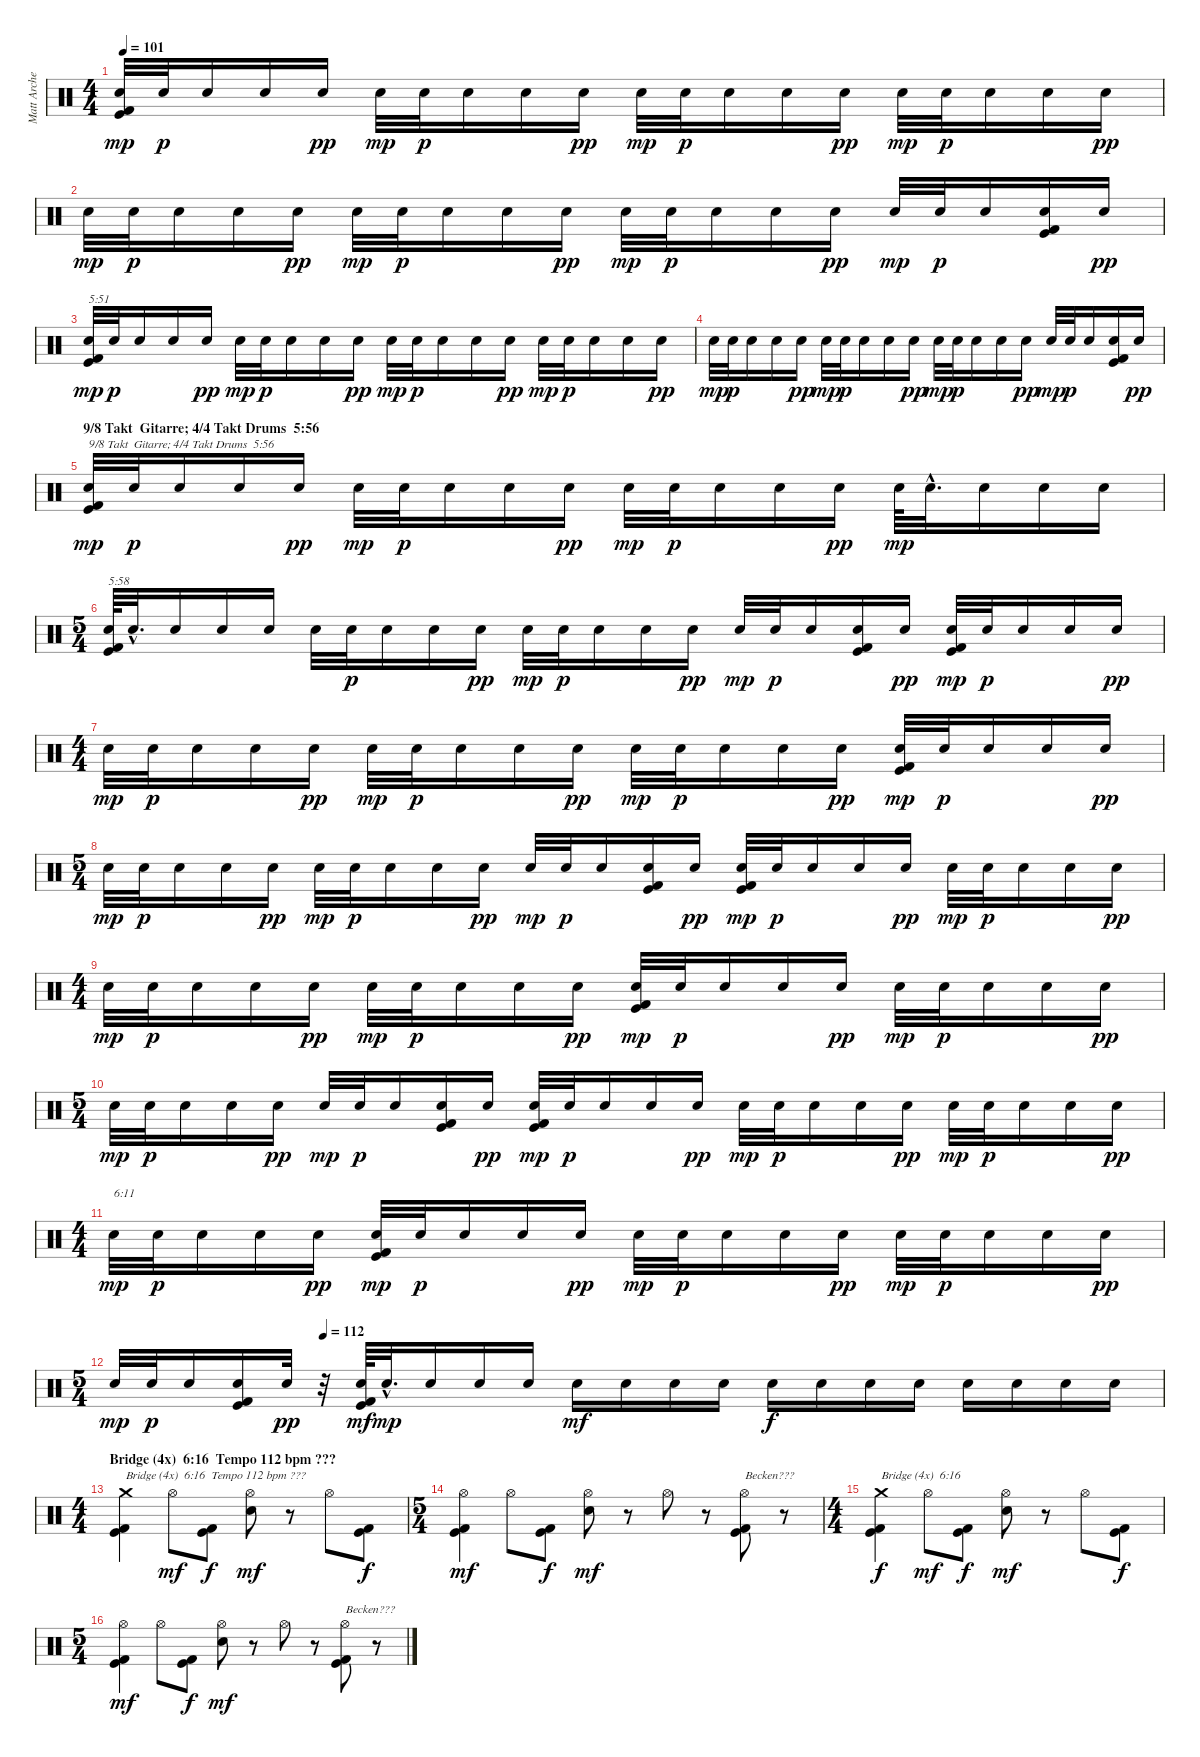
\track ("Matt Archer" "Matt Arche") {instrument percussion}
\staff {score}
\articulation defaults
\ts (4 4)
\tempo 101
\clef neutral
\ks c
("Kick (hit)" "Kick (hit) 2" "Electric Snare (hit)").32{dy mp} "Electric Snare (hit)".32{dy p} "Electric Snare (hit)".16 "Electric Snare (hit)".16 "Electric Snare (hit)".16{dy pp} "Electric Snare (hit)".32{dy mp} "Electric Snare (hit)".32{dy p} "Electric Snare (hit)".16 "Electric Snare (hit)".16 "Electric Snare (hit)".16{dy pp} "Electric Snare (hit)".32{dy mp} "Electric Snare (hit)".32{dy p} "Electric Snare (hit)".16 "Electric Snare (hit)".16 "Electric Snare (hit)".16{dy pp} "Electric Snare (hit)".32{dy mp} "Electric Snare (hit)".32{dy p} "Electric Snare (hit)".16 "Electric Snare (hit)".16 "Electric Snare (hit)".16{dy pp} |
"Electric Snare (hit)".32{dy mp} "Electric Snare (hit)".32{dy p} "Electric Snare (hit)".16 "Electric Snare (hit)".16 "Electric Snare (hit)".16{dy pp} "Electric Snare (hit)".32{dy mp} "Electric Snare (hit)".32{dy p} "Electric Snare (hit)".16 "Electric Snare (hit)".16 "Electric Snare (hit)".16{dy pp} "Electric Snare (hit)".32{dy mp} "Electric Snare (hit)".32{dy p} "Electric Snare (hit)".16 "Electric Snare (hit)".16 "Electric Snare (hit)".16{dy pp} "Electric Snare (hit)".32{dy mp} "Electric Snare (hit)".32{dy p} "Electric Snare (hit)".16 ("Kick (hit)" "Kick (hit) 2" "Electric Snare (hit)").16 "Electric Snare (hit)".16{dy pp} |
("Kick (hit)" "Kick (hit) 2" "Electric Snare (hit)").32{txt "5:51" dy mp} "Electric Snare (hit)".32{dy p} "Electric Snare (hit)".16 "Electric Snare (hit)".16 "Electric Snare (hit)".16{dy pp} "Electric Snare (hit)".32{dy mp} "Electric Snare (hit)".32{dy p} "Electric Snare (hit)".16 "Electric Snare (hit)".16 "Electric Snare (hit)".16{dy pp} "Electric Snare (hit)".32{dy mp} "Electric Snare (hit)".32{dy p} "Electric Snare (hit)".16 "Electric Snare (hit)".16 "Electric Snare (hit)".16{dy pp} "Electric Snare (hit)".32{dy mp} "Electric Snare (hit)".32{dy p} "Electric Snare (hit)".16 "Electric Snare (hit)".16 "Electric Snare (hit)".16{dy pp} |
"Electric Snare (hit)".32{dy mp} "Electric Snare (hit)".32{dy p} "Electric Snare (hit)".16 "Electric Snare (hit)".16 "Electric Snare (hit)".16{dy pp} "Electric Snare (hit)".32{dy mp} "Electric Snare (hit)".32{dy p} "Electric Snare (hit)".16 "Electric Snare (hit)".16 "Electric Snare (hit)".16{dy pp} "Electric Snare (hit)".32{dy mp} "Electric Snare (hit)".32{dy p} "Electric Snare (hit)".16 "Electric Snare (hit)".16 "Electric Snare (hit)".16{dy pp} "Electric Snare (hit)".32{dy mp} "Electric Snare (hit)".32{dy p} "Electric Snare (hit)".16 ("Kick (hit)" "Kick (hit) 2" "Electric Snare (hit)").16 "Electric Snare (hit)".16{dy pp} |
\section ("" "9/8 Takt  Gitarre; 4/4 Takt Drums  5:56")
("Kick (hit)" "Kick (hit) 2" "Electric Snare (hit)").32{txt "9/8 Takt  Gitarre; 4/4 Takt Drums  5:56" dy mp} "Electric Snare (hit)".32{dy p} "Electric Snare (hit)".16 "Electric Snare (hit)".16 "Electric Snare (hit)".16{dy pp} "Electric Snare (hit)".32{dy mp} "Electric Snare (hit)".32{dy p} "Electric Snare (hit)".16 "Electric Snare (hit)".16 "Electric Snare (hit)".16{dy pp} "Electric Snare (hit)".32{dy mp} "Electric Snare (hit)".32{dy p} "Electric Snare (hit)".16 "Electric Snare (hit)".16 "Electric Snare (hit)".16{dy pp} "Electric Snare (hit)".64{dy mp} "Electric Snare (hit)"{hac}.32{d} "Electric Snare (hit)".16 "Electric Snare (hit)".16 "Electric Snare (hit)".16 |
\ts (5 4)
("Kick (hit)" "Kick (hit) 2" "Electric Snare (hit)").64{txt "5:58"} "Electric Snare (hit)"{hac}.32{d} "Electric Snare (hit)".16 "Electric Snare (hit)".16 "Electric Snare (hit)".16 "Electric Snare (hit)".32 "Electric Snare (hit)".32{dy p} "Electric Snare (hit)".16 "Electric Snare (hit)".16 "Electric Snare (hit)".16{dy pp} "Electric Snare (hit)".32{dy mp} "Electric Snare (hit)".32{dy p} "Electric Snare (hit)".16 "Electric Snare (hit)".16 "Electric Snare (hit)".16{dy pp} "Electric Snare (hit)".32{dy mp} "Electric Snare (hit)".32{dy p} "Electric Snare (hit)".16 ("Kick (hit)" "Kick (hit) 2" "Electric Snare (hit)").16 "Electric Snare (hit)".16{dy pp} ("Kick (hit)" "Kick (hit) 2" "Electric Snare (hit)").32{dy mp} "Electric Snare (hit)".32{dy p} "Electric Snare (hit)".16 "Electric Snare (hit)".16 "Electric Snare (hit)".16{dy pp} |
\ts (4 4)
"Electric Snare (hit)".32{dy mp} "Electric Snare (hit)".32{dy p} "Electric Snare (hit)".16 "Electric Snare (hit)".16 "Electric Snare (hit)".16{dy pp} "Electric Snare (hit)".32{dy mp} "Electric Snare (hit)".32{dy p} "Electric Snare (hit)".16 "Electric Snare (hit)".16 "Electric Snare (hit)".16{dy pp} "Electric Snare (hit)".32{dy mp} "Electric Snare (hit)".32{dy p} "Electric Snare (hit)".16 "Electric Snare (hit)".16 "Electric Snare (hit)".16{dy pp} ("Kick (hit)" "Kick (hit) 2" "Electric Snare (hit)").32{dy mp} "Electric Snare (hit)".32{dy p} "Electric Snare (hit)".16 "Electric Snare (hit)".16 "Electric Snare (hit)".16{dy pp} |
\ts (5 4)
"Electric Snare (hit)".32{dy mp} "Electric Snare (hit)".32{dy p} "Electric Snare (hit)".16 "Electric Snare (hit)".16 "Electric Snare (hit)".16{dy pp} "Electric Snare (hit)".32{dy mp} "Electric Snare (hit)".32{dy p} "Electric Snare (hit)".16 "Electric Snare (hit)".16 "Electric Snare (hit)".16{dy pp} "Electric Snare (hit)".32{dy mp} "Electric Snare (hit)".32{dy p} "Electric Snare (hit)".16 ("Kick (hit)" "Kick (hit) 2" "Electric Snare (hit)").16 "Electric Snare (hit)".16{dy pp} ("Kick (hit)" "Kick (hit) 2" "Electric Snare (hit)").32{dy mp} "Electric Snare (hit)".32{dy p} "Electric Snare (hit)".16 "Electric Snare (hit)".16 "Electric Snare (hit)".16{dy pp} "Electric Snare (hit)".32{dy mp} "Electric Snare (hit)".32{dy p} "Electric Snare (hit)".16 "Electric Snare (hit)".16 "Electric Snare (hit)".16{dy pp} |
\ts (4 4)
"Electric Snare (hit)".32{dy mp} "Electric Snare (hit)".32{dy p} "Electric Snare (hit)".16 "Electric Snare (hit)".16 "Electric Snare (hit)".16{dy pp} "Electric Snare (hit)".32{dy mp} "Electric Snare (hit)".32{dy p} "Electric Snare (hit)".16 "Electric Snare (hit)".16 "Electric Snare (hit)".16{dy pp} ("Kick (hit)" "Kick (hit) 2" "Electric Snare (hit)").32{dy mp} "Electric Snare (hit)".32{dy p} "Electric Snare (hit)".16 "Electric Snare (hit)".16 "Electric Snare (hit)".16{dy pp} "Electric Snare (hit)".32{dy mp} "Electric Snare (hit)".32{dy p} "Electric Snare (hit)".16 "Electric Snare (hit)".16 "Electric Snare (hit)".16{dy pp} |
\ts (5 4)
"Electric Snare (hit)".32{dy mp} "Electric Snare (hit)".32{dy p} "Electric Snare (hit)".16 "Electric Snare (hit)".16 "Electric Snare (hit)".16{dy pp} "Electric Snare (hit)".32{dy mp} "Electric Snare (hit)".32{dy p} "Electric Snare (hit)".16 ("Kick (hit)" "Kick (hit) 2" "Electric Snare (hit)").16 "Electric Snare (hit)".16{dy pp} ("Kick (hit)" "Kick (hit) 2" "Electric Snare (hit)").32{dy mp} "Electric Snare (hit)".32{dy p} "Electric Snare (hit)".16 "Electric Snare (hit)".16 "Electric Snare (hit)".16{dy pp} "Electric Snare (hit)".32{dy mp} "Electric Snare (hit)".32{dy p} "Electric Snare (hit)".16 "Electric Snare (hit)".16 "Electric Snare (hit)".16{dy pp} "Electric Snare (hit)".32{dy mp} "Electric Snare (hit)".32{dy p} "Electric Snare (hit)".16 "Electric Snare (hit)".16 "Electric Snare (hit)".16{dy pp} |
\ts (4 4)
"Electric Snare (hit)".32{txt "6:11" dy mp} "Electric Snare (hit)".32{dy p} "Electric Snare (hit)".16 "Electric Snare (hit)".16 "Electric Snare (hit)".16{dy pp} ("Kick (hit)" "Kick (hit) 2" "Electric Snare (hit)").32{dy mp} "Electric Snare (hit)".32{dy p} "Electric Snare (hit)".16 "Electric Snare (hit)".16 "Electric Snare (hit)".16{dy pp} "Electric Snare (hit)".32{dy mp} "Electric Snare (hit)".32{dy p} "Electric Snare (hit)".16 "Electric Snare (hit)".16 "Electric Snare (hit)".16{dy pp} "Electric Snare (hit)".32{dy mp} "Electric Snare (hit)".32{dy p} "Electric Snare (hit)".16 "Electric Snare (hit)".16 "Electric Snare (hit)".16{dy pp} |
\ts (5 4)
\tempo (112 0.2)
"Electric Snare (hit)".32{dy mp} "Electric Snare (hit)".32{dy p} "Electric Snare (hit)".16 ("Kick (hit)" "Kick (hit) 2" "Electric Snare (hit)").16 "Electric Snare (hit)".32{dy pp} r.32{volume 10} ("Kick (hit)" "Kick (hit) 2" "Electric Snare (hit)").64{dy mf volume 15} "Electric Snare (hit)"{hac}.32{d dy mp} "Electric Snare (hit)".16 "Electric Snare (hit)".16 "Electric Snare (hit)".16 "Electric Snare (hit)".16{dy mf} "Electric Snare (hit)".16 "Electric Snare (hit)".16 "Electric Snare (hit)".16 "Electric Snare (hit)".16{dy f} "Electric Snare (hit)".16 "Electric Snare (hit)".16 "Electric Snare (hit)".16 "Electric Snare (hit)".16 "Electric Snare (hit)".16 "Electric Snare (hit)".16 "Electric Snare (hit)".16 |
\ts (4 4)
\section ("" "Bridge (4x)  6:16  Tempo 112 bpm ???")
("Kick (hit)" "Kick (hit) 2" "Crash medium (hit)").4{txt "Bridge (4x)  6:16  Tempo 112 bpm ???" volume 14} "Hi-Hat (open)".8{dy mf} ("Kick (hit)" "Kick (hit) 2").8{dy f} ("Electric Snare (hit)" "Hi-Hat (open)").8{dy mf} r.8 "Hi-Hat (open)".8 ("Kick (hit)" "Kick (hit) 2").8{dy f} |
\ts (5 4)
("Kick (hit)" "Kick (hit) 2" "Hi-Hat (open)").4{dy mf} "Hi-Hat (open)".8 ("Kick (hit)" "Kick (hit) 2").8{dy f} ("Electric Snare (hit)" "Hi-Hat (open)").8{dy mf} r.8 "Hi-Hat (open)".8 r.8 ("Kick (hit)" "Kick (hit) 2" "Hi-Hat (open)").8{txt "Becken???"} r.8 |
\ts (4 4)
("Kick (hit)" "Kick (hit) 2" "Crash medium (hit)").4{txt "Bridge (4x)  6:16  " dy f} "Hi-Hat (open)".8{dy mf} ("Kick (hit)" "Kick (hit) 2").8{dy f} ("Electric Snare (hit)" "Hi-Hat (open)").8{dy mf} r.8 "Hi-Hat (open)".8 ("Kick (hit)" "Kick (hit) 2").8{dy f} |
\ts (5 4)
("Kick (hit)" "Kick (hit) 2" "Hi-Hat (open)").4{dy mf} "Hi-Hat (open)".8 ("Kick (hit)" "Kick (hit) 2").8{dy f} ("Electric Snare (hit)" "Hi-Hat (open)").8{dy mf} r.8 "Hi-Hat (open)".8 r.8 ("Kick (hit)" "Kick (hit) 2" "Hi-Hat (open)").8{txt "Becken???"} r.8
